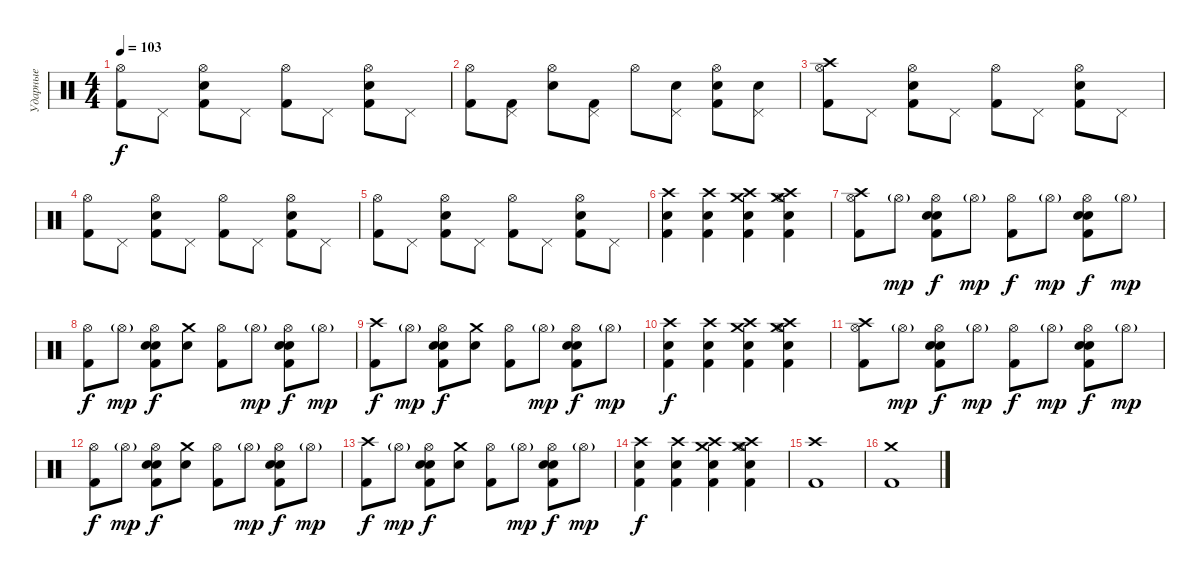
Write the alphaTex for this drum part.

\track ("Ударные" "Ударные") {instrument percussion}
\staff {score}
\articulation defaults
\ts (4 4)
\tempo 103
\clef neutral
\ks c
("Hi-Hat (open)" "Kick (hit) 2").8{dy f} "Pedal Hi-Hat (hit)".8 ("Hi-Hat (open)" "Snare (hit) 2" "Kick (hit) 2").8 "Pedal Hi-Hat (hit)".8 ("Hi-Hat (open)" "Kick (hit) 2").8 "Pedal Hi-Hat (hit)".8 ("Hi-Hat (open)" "Snare (hit) 2" "Kick (hit) 2").8 "Pedal Hi-Hat (hit)".8 |
("Hi-Hat (open)" "Kick (hit) 2").8 ("Pedal Hi-Hat (hit)" "Kick (hit) 2").8 ("Hi-Hat (open)" "Snare (hit) 2").8 ("Pedal Hi-Hat (hit)" "Kick (hit) 2").8 "Hi-Hat (open)".8 ("Pedal Hi-Hat (hit)" "Snare (hit) 2").8 ("Hi-Hat (open)" "Snare (hit) 2" "Kick (hit) 2").8 ("Pedal Hi-Hat (hit)" "Snare (hit) 2").8 |
("Crash high (hit)" "Hi-Hat (open)" "Kick (hit) 2").8 "Pedal Hi-Hat (hit)".8 ("Hi-Hat (open)" "Snare (hit) 2" "Kick (hit) 2").8 "Pedal Hi-Hat (hit)".8 ("Hi-Hat (open)" "Kick (hit) 2").8 "Pedal Hi-Hat (hit)".8 ("Hi-Hat (open)" "Snare (hit) 2" "Kick (hit) 2").8 "Pedal Hi-Hat (hit)".8 |
("Hi-Hat (open)" "Kick (hit) 2").8 "Pedal Hi-Hat (hit)".8 ("Hi-Hat (open)" "Snare (hit) 2" "Kick (hit) 2").8 "Pedal Hi-Hat (hit)".8 ("Hi-Hat (open)" "Kick (hit) 2").8 "Pedal Hi-Hat (hit)".8 ("Hi-Hat (open)" "Snare (hit) 2" "Kick (hit) 2").8 "Pedal Hi-Hat (hit)".8 |
("Hi-Hat (open)" "Kick (hit) 2").8 "Pedal Hi-Hat (hit)".8 ("Hi-Hat (open)" "Snare (hit) 2" "Kick (hit) 2").8 "Pedal Hi-Hat (hit)".8 ("Hi-Hat (open)" "Kick (hit) 2").8 "Pedal Hi-Hat (hit)".8 ("Hi-Hat (open)" "Snare (hit) 2" "Kick (hit) 2").8 "Pedal Hi-Hat (hit)".8 |
("Crash high (hit)" "Snare (hit) 2" "Kick (hit) 2").4 ("Crash high (hit)" "Snare (hit) 2" "Kick (hit) 2").4 ("Crash medium (hit)" "Crash high (hit)" "Snare (hit) 2" "Kick (hit) 2").4 ("Crash medium (hit)" "Crash high (hit)" "Snare (hit) 2" "Hi-Hat (open)" "Kick (hit) 2").4 |
("Crash high (hit)" "Hi-Hat (open)" "Kick (hit) 2").8 "Hi-Hat (open)"{g}.8{dy mp} ("Hi-Hat (open)" "Snare (hit) 2" "Hand Clap (hit)" "Kick (hit) 2").8{dy f} "Hi-Hat (open)"{g}.8{dy mp} ("Hi-Hat (open)" "Kick (hit) 2").8{dy f} "Hi-Hat (open)"{g}.8{dy mp} ("Hi-Hat (open)" "Snare (hit) 2" "Hand Clap (hit)" "Kick (hit) 2").8{dy f} "Hi-Hat (open)"{g}.8{dy mp} |
("Hi-Hat (open)" "Kick (hit) 2").8{dy f} "Hi-Hat (open)"{g}.8{dy mp} ("Hi-Hat (open)" "Snare (hit) 2" "Hand Clap (hit)" "Kick (hit) 2").8{dy f} ("Crash medium (hit)" "Snare (hit) 2").8 ("Hi-Hat (open)" "Kick (hit) 2").8 "Hi-Hat (open)"{g}.8{dy mp} ("Hi-Hat (open)" "Snare (hit) 2" "Hand Clap (hit)" "Kick (hit) 2").8{dy f} "Hi-Hat (open)"{g}.8{dy mp} |
("Crash high (hit)" "Kick (hit) 2").8{dy f} "Hi-Hat (open)"{g}.8{dy mp} ("Hi-Hat (open)" "Snare (hit) 2" "Hand Clap (hit)" "Kick (hit) 2").8{dy f} ("Crash medium (hit)" "Snare (hit) 2").8 ("Hi-Hat (open)" "Kick (hit) 2").8 "Hi-Hat (open)"{g}.8{dy mp} ("Hi-Hat (open)" "Snare (hit) 2" "Hand Clap (hit)" "Kick (hit) 2").8{dy f} "Hi-Hat (open)"{g}.8{dy mp} |
("Crash high (hit)" "Snare (hit) 2" "Kick (hit) 2").4{dy f} ("Crash high (hit)" "Snare (hit) 2" "Kick (hit) 2").4 ("Crash medium (hit)" "Crash high (hit)" "Snare (hit) 2" "Kick (hit) 2").4 ("Crash medium (hit)" "Crash high (hit)" "Snare (hit) 2" "Hi-Hat (open)" "Kick (hit) 2").4 |
("Crash high (hit)" "Hi-Hat (open)" "Kick (hit) 2").8 "Hi-Hat (open)"{g}.8{dy mp} ("Hi-Hat (open)" "Snare (hit) 2" "Hand Clap (hit)" "Kick (hit) 2").8{dy f} "Hi-Hat (open)"{g}.8{dy mp} ("Hi-Hat (open)" "Kick (hit) 2").8{dy f} "Hi-Hat (open)"{g}.8{dy mp} ("Hi-Hat (open)" "Snare (hit) 2" "Hand Clap (hit)" "Kick (hit) 2").8{dy f} "Hi-Hat (open)"{g}.8{dy mp} |
("Hi-Hat (open)" "Kick (hit) 2").8{dy f} "Hi-Hat (open)"{g}.8{dy mp} ("Hi-Hat (open)" "Snare (hit) 2" "Hand Clap (hit)" "Kick (hit) 2").8{dy f} ("Crash medium (hit)" "Snare (hit) 2").8 ("Hi-Hat (open)" "Kick (hit) 2").8 "Hi-Hat (open)"{g}.8{dy mp} ("Hi-Hat (open)" "Snare (hit) 2" "Hand Clap (hit)" "Kick (hit) 2").8{dy f} "Hi-Hat (open)"{g}.8{dy mp} |
("Crash high (hit)" "Kick (hit) 2").8{dy f} "Hi-Hat (open)"{g}.8{dy mp} ("Hi-Hat (open)" "Snare (hit) 2" "Hand Clap (hit)" "Kick (hit) 2").8{dy f} ("Crash medium (hit)" "Snare (hit) 2").8 ("Hi-Hat (open)" "Kick (hit) 2").8 "Hi-Hat (open)"{g}.8{dy mp} ("Hi-Hat (open)" "Snare (hit) 2" "Hand Clap (hit)" "Kick (hit) 2").8{dy f} "Hi-Hat (open)"{g}.8{dy mp} |
("Crash high (hit)" "Snare (hit) 2" "Kick (hit) 2").4{dy f} ("Crash high (hit)" "Snare (hit) 2" "Kick (hit) 2").4 ("Crash medium (hit)" "Crash high (hit)" "Snare (hit) 2" "Kick (hit) 2").4 ("Crash medium (hit)" "Crash high (hit)" "Snare (hit) 2" "Hi-Hat (open)" "Kick (hit) 2").4 |
("Crash high (hit)" "Kick (hit) 2").1 |
("Crash medium (hit)" "Kick (hit) 2").1
